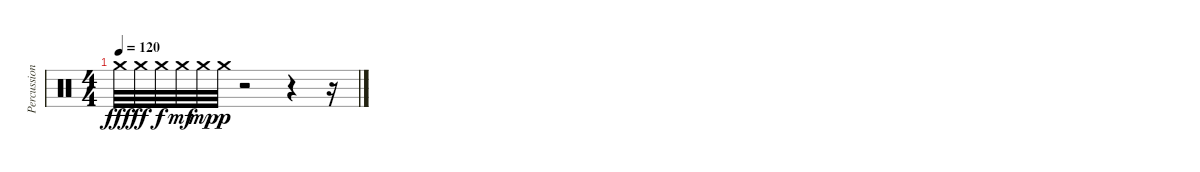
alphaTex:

\track ("Percussions" "Percussion") {instrument percussion}
\staff {score}
\articulation defaults
\ts (4 4)
\tempo 120
\clef neutral
\ks c "Crash medium (hit)".32{dy fff} "Crash medium (hit)".32{dy ff} "Crash medium (hit)".32{dy f} "Crash medium (hit)".32{dy mf} "Crash medium (hit)".32{dy mp} "Crash medium (hit)".32{dy p}
r.2 r.4 r.16
